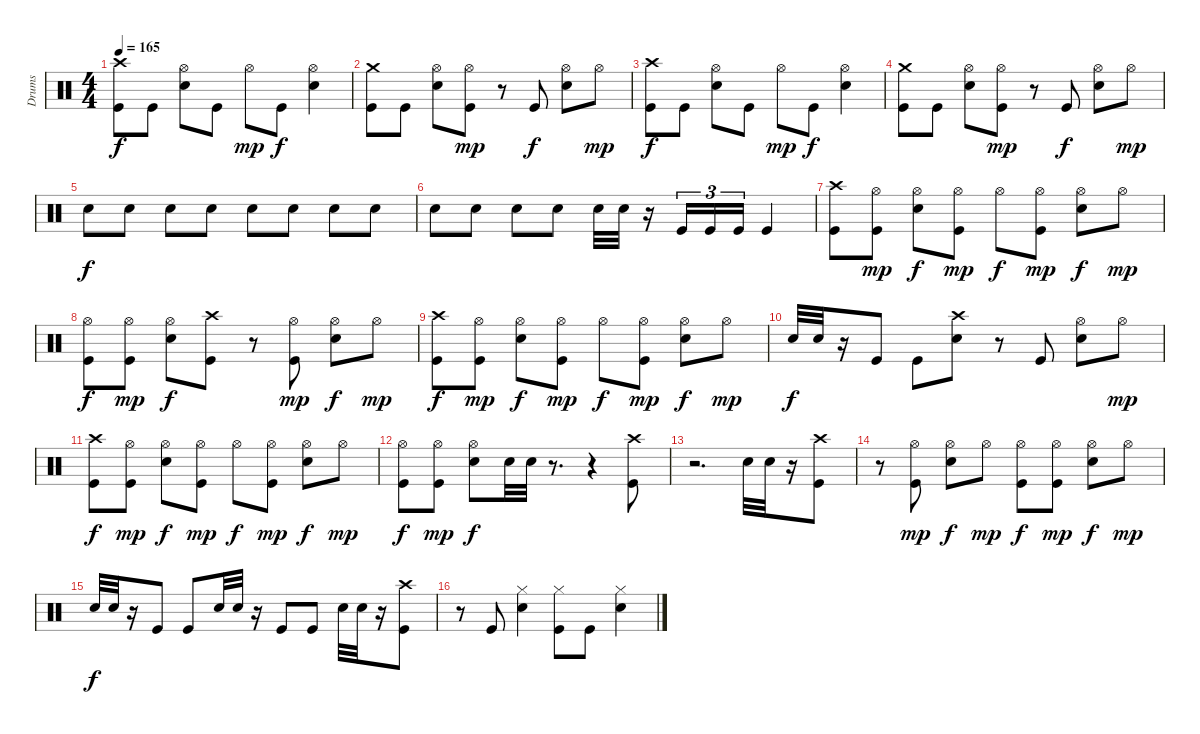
\track ("Drums" "Drums") {instrument percussion}
\staff {score}
\articulation defaults
\ts (4 4)
\tempo 165
\clef neutral
\ks c
("Crash high (hit)" "Kick (hit)").8{dy f} "Kick (hit)".8 ("Hi-Hat (open)" "Snare (hit) 2").8 "Kick (hit)".8 "Hi-Hat (open)".8{dy mp} "Kick (hit)".8{dy f} ("Hi-Hat (open)" "Snare (hit) 2").4 |
("Crash medium (hit)" "Kick (hit)").8 "Kick (hit)".8 ("Hi-Hat (open)" "Snare (hit) 2").8 ("Hi-Hat (open)" "Kick (hit)").8{dy mp} r.8 "Kick (hit)".8{dy f} ("Hi-Hat (open)" "Snare (hit) 2").8 "Hi-Hat (open)".8{dy mp} |
("Crash high (hit)" "Kick (hit)").8{dy f} "Kick (hit)".8 ("Hi-Hat (open)" "Snare (hit) 2").8 "Kick (hit)".8 "Hi-Hat (open)".8{dy mp} "Kick (hit)".8{dy f} ("Hi-Hat (open)" "Snare (hit) 2").4 |
("Crash medium (hit)" "Kick (hit)").8 "Kick (hit)".8 ("Hi-Hat (open)" "Snare (hit) 2").8 ("Hi-Hat (open)" "Kick (hit)").8{dy mp} r.8 "Kick (hit)".8{dy f} ("Hi-Hat (open)" "Snare (hit) 2").8 "Hi-Hat (open)".8{dy mp} |
"Snare (hit) 2".8{dy f} "Snare (hit) 2".8 "Snare (hit) 2".8 "Snare (hit) 2".8 "Snare (hit) 2".8 "Snare (hit) 2".8 "Snare (hit) 2".8 "Snare (hit) 2".8 |
"Snare (hit) 2".8 "Snare (hit) 2".8 "Snare (hit) 2".8 "Snare (hit) 2".8 "Snare (hit) 2".32 "Snare (hit) 2".32 r.16 "Kick (hit)".16{tu (3 2)} "Kick (hit)".16{tu (3 2)} "Kick (hit)".16{tu (3 2)} "Kick (hit)".4 |
("Crash high (hit)" "Kick (hit)").8 ("Hi-Hat (open)" "Kick (hit)").8{dy mp} ("Hi-Hat (open)" "Snare (hit) 2").8{dy f} ("Hi-Hat (open)" "Kick (hit)").8{dy mp} "Hi-Hat (open)".8{dy f} ("Hi-Hat (open)" "Kick (hit)").8{dy mp} ("Hi-Hat (open)" "Snare (hit) 2").8{dy f} "Hi-Hat (open)".8{dy mp} |
("Hi-Hat (open)" "Kick (hit)").8{dy f} ("Hi-Hat (open)" "Kick (hit)").8{dy mp} ("Hi-Hat (open)" "Snare (hit) 2").8{dy f} ("Crash high (hit)" "Kick (hit)").8 r.8 ("Hi-Hat (open)" "Kick (hit)").8{dy mp} ("Hi-Hat (open)" "Snare (hit) 2").8{dy f} "Hi-Hat (open)".8{dy mp} |
("Crash high (hit)" "Kick (hit)").8{dy f} ("Hi-Hat (open)" "Kick (hit)").8{dy mp} ("Hi-Hat (open)" "Snare (hit) 2").8{dy f} ("Hi-Hat (open)" "Kick (hit)").8{dy mp} "Hi-Hat (open)".8{dy f} ("Hi-Hat (open)" "Kick (hit)").8{dy mp} ("Hi-Hat (open)" "Snare (hit) 2").8{dy f} "Hi-Hat (open)".8{dy mp} |
"Snare (hit) 2".32{dy f} "Snare (hit) 2".32 r.16 "Kick (hit)".8 "Kick (hit)".8 ("Crash high (hit)" "Snare (hit) 2").8 r.8 "Kick (hit)".8 ("Hi-Hat (open)" "Snare (hit) 2").8 "Hi-Hat (open)".8{dy mp} |
("Crash high (hit)" "Kick (hit)").8{dy f} ("Hi-Hat (open)" "Kick (hit)").8{dy mp} ("Hi-Hat (open)" "Snare (hit) 2").8{dy f} ("Hi-Hat (open)" "Kick (hit)").8{dy mp} "Hi-Hat (open)".8{dy f} ("Hi-Hat (open)" "Kick (hit)").8{dy mp} ("Hi-Hat (open)" "Snare (hit) 2").8{dy f} "Hi-Hat (open)".8{dy mp} |
("Hi-Hat (open)" "Kick (hit)").8{dy f} ("Hi-Hat (open)" "Kick (hit)").8{dy mp} ("Hi-Hat (open)" "Snare (hit) 2").8{dy f} "Snare (hit) 2".32 "Snare (hit) 2".32 r.8{d} r.4 ("Crash high (hit)" "Kick (hit)").8 |
r.2{d} "Snare (hit) 2".32 "Snare (hit) 2".32 r.16 ("Crash high (hit)" "Kick (hit)").8 |
r.8 ("Hi-Hat (open)" "Kick (hit)").8{dy mp} ("Hi-Hat (open)" "Snare (hit) 2").8{dy f} "Hi-Hat (open)".8{dy mp} ("Hi-Hat (open)" "Kick (hit)").8{dy f} ("Hi-Hat (open)" "Kick (hit)").8{dy mp} ("Hi-Hat (open)" "Snare (hit) 2").8{dy f} "Hi-Hat (open)".8{dy mp} |
"Snare (hit) 2".32{dy f} "Snare (hit) 2".32 r.16 "Kick (hit)".8 "Kick (hit)".8 "Snare (hit) 2".32 "Snare (hit) 2".32 r.16 "Kick (hit)".8 "Kick (hit)".8 "Snare (hit) 2".32 "Snare (hit) 2".32 r.16 ("Crash high (hit)" "Kick (hit)").8 |
r.8 "Kick (hit)".8 ("Hi-Hat (closed)" "Snare (hit) 2").4 ("Hi-Hat (closed)" "Kick (hit)").8 "Kick (hit)".8 ("Hi-Hat (closed)" "Snare (hit) 2").4
